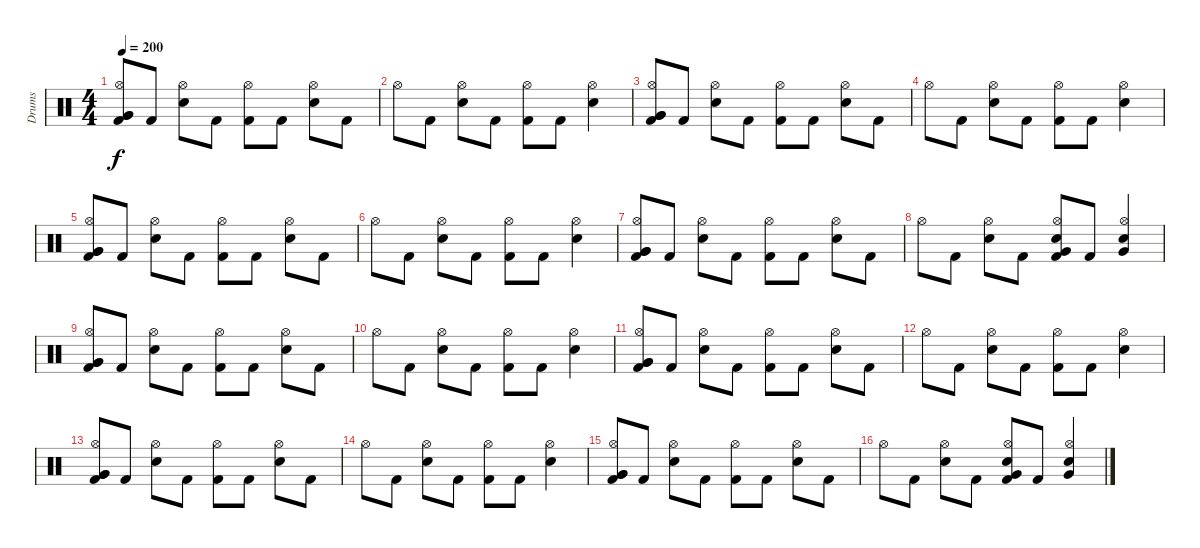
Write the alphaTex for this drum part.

\track ("Drums" "Drums") {instrument percussion}
\staff {score}
\articulation defaults
\ts (4 4)
\tempo 200
\clef neutral
\ks c
("Very Low Tom (hit)" "Very Low Tom (hit)" "Hi-Hat (open)" "Kick (hit) 2").8{dy f} "Kick (hit) 2".8 ("Electric Snare (hit)" "Hi-Hat (open)").8 "Kick (hit) 2".8 ("Hi-Hat (open)" "Kick (hit) 2").8 "Kick (hit) 2".8 ("Electric Snare (hit)" "Hi-Hat (open)").8 "Kick (hit) 2".8 |
"Hi-Hat (open)".8 "Kick (hit) 2".8 ("Electric Snare (hit)" "Hi-Hat (open)").8 "Kick (hit) 2".8 ("Hi-Hat (open)" "Kick (hit) 2").8 "Kick (hit) 2".8 ("Electric Snare (hit)" "Hi-Hat (open)").4 |
("Very Low Tom (hit)" "Very Low Tom (hit)" "Hi-Hat (open)" "Kick (hit) 2").8 "Kick (hit) 2".8 ("Electric Snare (hit)" "Hi-Hat (open)").8 "Kick (hit) 2".8 ("Hi-Hat (open)" "Kick (hit) 2").8 "Kick (hit) 2".8 ("Electric Snare (hit)" "Hi-Hat (open)").8 "Kick (hit) 2".8 |
"Hi-Hat (open)".8 "Kick (hit) 2".8 ("Electric Snare (hit)" "Hi-Hat (open)").8 "Kick (hit) 2".8 ("Hi-Hat (open)" "Kick (hit) 2").8 "Kick (hit) 2".8 ("Electric Snare (hit)" "Hi-Hat (open)").4 |
("Very Low Tom (hit)" "Very Low Tom (hit)" "Hi-Hat (open)" "Kick (hit) 2").8 "Kick (hit) 2".8 ("Electric Snare (hit)" "Hi-Hat (open)").8 "Kick (hit) 2".8 ("Hi-Hat (open)" "Kick (hit) 2").8 "Kick (hit) 2".8 ("Electric Snare (hit)" "Hi-Hat (open)").8 "Kick (hit) 2".8 |
"Hi-Hat (open)".8 "Kick (hit) 2".8 ("Electric Snare (hit)" "Hi-Hat (open)").8 "Kick (hit) 2".8 ("Hi-Hat (open)" "Kick (hit) 2").8 "Kick (hit) 2".8 ("Electric Snare (hit)" "Hi-Hat (open)").4 |
("Very Low Tom (hit)" "Very Low Tom (hit)" "Hi-Hat (open)" "Kick (hit) 2").8 "Kick (hit) 2".8 ("Electric Snare (hit)" "Hi-Hat (open)").8 "Kick (hit) 2".8 ("Hi-Hat (open)" "Kick (hit) 2").8 "Kick (hit) 2".8 ("Electric Snare (hit)" "Hi-Hat (open)").8 "Kick (hit) 2".8 |
"Hi-Hat (open)".8 "Kick (hit) 2".8 ("Electric Snare (hit)" "Hi-Hat (open)").8 "Kick (hit) 2".8 ("Very Low Tom (hit)" "Electric Snare (hit)" "Hi-Hat (open)" "Kick (hit) 2").8 "Kick (hit) 2".8 ("Very Low Tom (hit)" "Electric Snare (hit)" "Hi-Hat (open)").4 |
("Very Low Tom (hit)" "Very Low Tom (hit)" "Hi-Hat (open)" "Kick (hit) 2").8 "Kick (hit) 2".8 ("Electric Snare (hit)" "Hi-Hat (open)").8 "Kick (hit) 2".8 ("Hi-Hat (open)" "Kick (hit) 2").8 "Kick (hit) 2".8 ("Electric Snare (hit)" "Hi-Hat (open)").8 "Kick (hit) 2".8 |
"Hi-Hat (open)".8 "Kick (hit) 2".8 ("Electric Snare (hit)" "Hi-Hat (open)").8 "Kick (hit) 2".8 ("Hi-Hat (open)" "Kick (hit) 2").8 "Kick (hit) 2".8 ("Electric Snare (hit)" "Hi-Hat (open)").4 |
("Very Low Tom (hit)" "Very Low Tom (hit)" "Hi-Hat (open)" "Kick (hit) 2").8 "Kick (hit) 2".8 ("Electric Snare (hit)" "Hi-Hat (open)").8 "Kick (hit) 2".8 ("Hi-Hat (open)" "Kick (hit) 2").8 "Kick (hit) 2".8 ("Electric Snare (hit)" "Hi-Hat (open)").8 "Kick (hit) 2".8 |
"Hi-Hat (open)".8 "Kick (hit) 2".8 ("Electric Snare (hit)" "Hi-Hat (open)").8 "Kick (hit) 2".8 ("Hi-Hat (open)" "Kick (hit) 2").8 "Kick (hit) 2".8 ("Electric Snare (hit)" "Hi-Hat (open)").4 |
("Very Low Tom (hit)" "Very Low Tom (hit)" "Hi-Hat (open)" "Kick (hit) 2").8 "Kick (hit) 2".8 ("Electric Snare (hit)" "Hi-Hat (open)").8 "Kick (hit) 2".8 ("Hi-Hat (open)" "Kick (hit) 2").8 "Kick (hit) 2".8 ("Electric Snare (hit)" "Hi-Hat (open)").8 "Kick (hit) 2".8 |
"Hi-Hat (open)".8 "Kick (hit) 2".8 ("Electric Snare (hit)" "Hi-Hat (open)").8 "Kick (hit) 2".8 ("Hi-Hat (open)" "Kick (hit) 2").8 "Kick (hit) 2".8 ("Electric Snare (hit)" "Hi-Hat (open)").4 |
("Very Low Tom (hit)" "Very Low Tom (hit)" "Hi-Hat (open)" "Kick (hit) 2").8 "Kick (hit) 2".8 ("Electric Snare (hit)" "Hi-Hat (open)").8 "Kick (hit) 2".8 ("Hi-Hat (open)" "Kick (hit) 2").8 "Kick (hit) 2".8 ("Electric Snare (hit)" "Hi-Hat (open)").8 "Kick (hit) 2".8 |
"Hi-Hat (open)".8 "Kick (hit) 2".8 ("Electric Snare (hit)" "Hi-Hat (open)").8 "Kick (hit) 2".8 ("Very Low Tom (hit)" "Electric Snare (hit)" "Hi-Hat (open)" "Kick (hit) 2").8 "Kick (hit) 2".8 ("Very Low Tom (hit)" "Electric Snare (hit)" "Hi-Hat (open)").4
